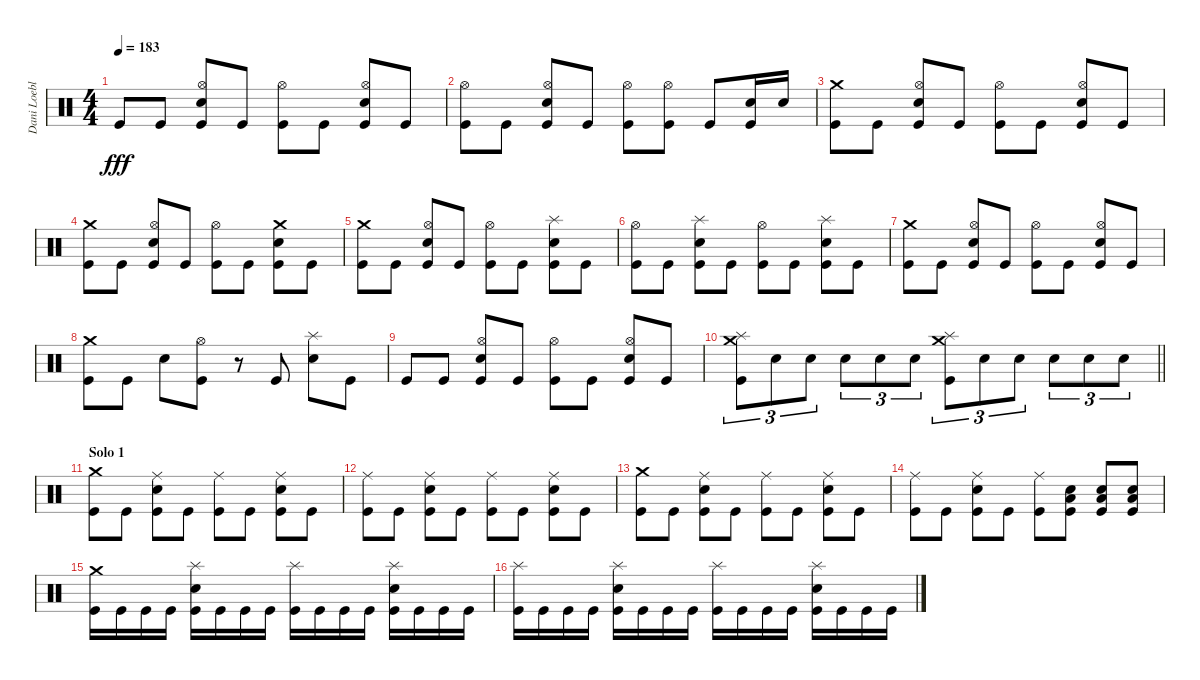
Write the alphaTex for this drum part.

\track ("Dani Loeble" "Dani Loebl") {instrument percussion}
\staff {score}
\articulation defaults
\ts (4 4)
\tempo 183
\clef neutral
\ks c "Kick (hit)".8{dy fff} "Kick (hit)".8
("Hi-Hat (open)" "Electric Snare (hit)" "Kick (hit)").8 "Kick (hit)".8 ("Hi-Hat (open)" "Kick (hit)").8 "Kick (hit)".8 ("Hi-Hat (open)" "Electric Snare (hit)" "Kick (hit)").8 "Kick (hit)".8 |
("Hi-Hat (open)" "Kick (hit)").8 "Kick (hit)".8 ("Hi-Hat (open)" "Electric Snare (hit)" "Kick (hit)").8 "Kick (hit)".8 ("Hi-Hat (open)" "Kick (hit)").8 ("Hi-Hat (open)" "Kick (hit)").8 "Kick (hit)".8 ("Electric Snare (hit)" "Kick (hit)").16 "Electric Snare (hit)".16 |
("Crash medium (hit)" "Kick (hit)").8 "Kick (hit)".8 ("Hi-Hat (open)" "Electric Snare (hit)" "Kick (hit)").8 "Kick (hit)".8 ("Hi-Hat (open)" "Kick (hit)").8 "Kick (hit)".8 ("Hi-Hat (open)" "Electric Snare (hit)" "Kick (hit)").8 "Kick (hit)".8 |
("Crash medium (hit)" "Kick (hit)").8 "Kick (hit)".8 ("Hi-Hat (open)" "Electric Snare (hit)" "Kick (hit)").8 "Kick (hit)".8 ("Hi-Hat (open)" "Kick (hit)").8 "Kick (hit)".8 ("Crash medium (hit)" "Electric Snare (hit)" "Kick (hit)").8 "Kick (hit)".8 |
("Crash medium (hit)" "Kick (hit)").8 "Kick (hit)".8 ("Hi-Hat (open)" "Electric Snare (hit)" "Kick (hit)").8 "Kick (hit)".8 ("Hi-Hat (open)" "Kick (hit)").8 "Kick (hit)".8 ("Splash (hit)" "Electric Snare (hit)" "Kick (hit)").8 "Kick (hit)".8 |
("Hi-Hat (open)" "Kick (hit)").8 "Kick (hit)".8 ("Splash (hit)" "Electric Snare (hit)" "Kick (hit)").8 "Kick (hit)".8 ("Hi-Hat (open)" "Kick (hit)").8 "Kick (hit)".8 ("Splash (hit)" "Electric Snare (hit)" "Kick (hit)").8 "Kick (hit)".8 |
("Crash medium (hit)" "Kick (hit)").8 "Kick (hit)".8 ("Hi-Hat (open)" "Electric Snare (hit)" "Kick (hit)").8 "Kick (hit)".8 ("Hi-Hat (open)" "Kick (hit)").8 "Kick (hit)".8 ("Hi-Hat (open)" "Electric Snare (hit)" "Kick (hit)").8 "Kick (hit)".8 |
("Crash medium (hit)" "Kick (hit)").8 "Kick (hit)".8 "Electric Snare (hit)".8 ("Hi-Hat (open)" "Kick (hit)").8 r.8 "Kick (hit)".8 ("Splash (hit)" "Electric Snare (hit)").8 "Kick (hit)".8 |
"Kick (hit)".8 "Kick (hit)".8 ("Hi-Hat (open)" "Electric Snare (hit)" "Kick (hit)").8 "Kick (hit)".8 ("Hi-Hat (open)" "Kick (hit)").8 "Kick (hit)".8 ("Hi-Hat (open)" "Electric Snare (hit)" "Kick (hit)").8 "Kick (hit)".8 |
\barLineRight lightlight
("Crash medium (hit)" "Splash (hit)" "Kick (hit)").8{tu (3 2)} "Electric Snare (hit)".8{tu (3 2)} "Electric Snare (hit)".8{tu (3 2)} "Electric Snare (hit)".8{tu (3 2)} "Electric Snare (hit)".8{tu (3 2)} "Electric Snare (hit)".8{tu (3 2)} ("Crash medium (hit)" "Splash (hit)" "Kick (hit)").8{tu (3 2)} "Electric Snare (hit)".8{tu (3 2)} "Electric Snare (hit)".8{tu (3 2)} "Electric Snare (hit)".8{tu (3 2)} "Electric Snare (hit)".8{tu (3 2)} "Electric Snare (hit)".8{tu (3 2)} |
\section ("" "Solo 1")
("Crash medium (hit)" "Kick (hit)").8 "Kick (hit)".8 ("Ride (middle)" "Electric Snare (hit)" "Kick (hit)").8 "Kick (hit)".8 ("Ride (middle)" "Kick (hit)").8 "Kick (hit)".8 ("Ride (middle)" "Electric Snare (hit)" "Kick (hit)").8 "Kick (hit)".8 |
("Ride (middle)" "Kick (hit)").8 "Kick (hit)".8 ("Ride (middle)" "Electric Snare (hit)" "Kick (hit)").8 "Kick (hit)".8 ("Ride (middle)" "Kick (hit)").8 "Kick (hit)".8 ("Ride (middle)" "Electric Snare (hit)" "Kick (hit)").8 "Kick (hit)".8 |
("Crash medium (hit)" "Kick (hit)").8 "Kick (hit)".8 ("Ride (middle)" "Electric Snare (hit)" "Kick (hit)").8 "Kick (hit)".8 ("Ride (middle)" "Kick (hit)").8 "Kick (hit)".8 ("Ride (middle)" "Electric Snare (hit)" "Kick (hit)").8 "Kick (hit)".8 |
("Ride (middle)" "Kick (hit)").8 "Kick (hit)".8 ("Ride (middle)" "Electric Snare (hit)" "Kick (hit)").8 "Kick (hit)".8 ("Ride (middle)" "Kick (hit)").8 ("Electric Snare (hit)" "Low Floor Tom (hit)" "Kick (hit)").8 ("Electric Snare (hit)" "Low Floor Tom (hit)" "Kick (hit)").8 ("Electric Snare (hit)" "Low Floor Tom (hit)" "Kick (hit)").8 |
("Crash medium (hit)" "Kick (hit)").16 "Kick (hit)".16 "Kick (hit)".16 "Kick (hit)".16 ("Splash (hit)" "Electric Snare (hit)" "Kick (hit)").16 "Kick (hit)".16 "Kick (hit)".16 "Kick (hit)".16 ("Splash (hit)" "Kick (hit)").16 "Kick (hit)".16 "Kick (hit)".16 "Kick (hit)".16 ("Splash (hit)" "Electric Snare (hit)" "Kick (hit)").16 "Kick (hit)".16 "Kick (hit)".16 "Kick (hit)".16 |
("Splash (hit)" "Kick (hit)").16 "Kick (hit)".16 "Kick (hit)".16 "Kick (hit)".16 ("Splash (hit)" "Electric Snare (hit)" "Kick (hit)").16 "Kick (hit)".16 "Kick (hit)".16 "Kick (hit)".16 ("Splash (hit)" "Kick (hit)").16 "Kick (hit)".16 "Kick (hit)".16 "Kick (hit)".16 ("Splash (hit)" "Electric Snare (hit)" "Kick (hit)").16 "Kick (hit)".16 "Kick (hit)".16 "Kick (hit)".16
